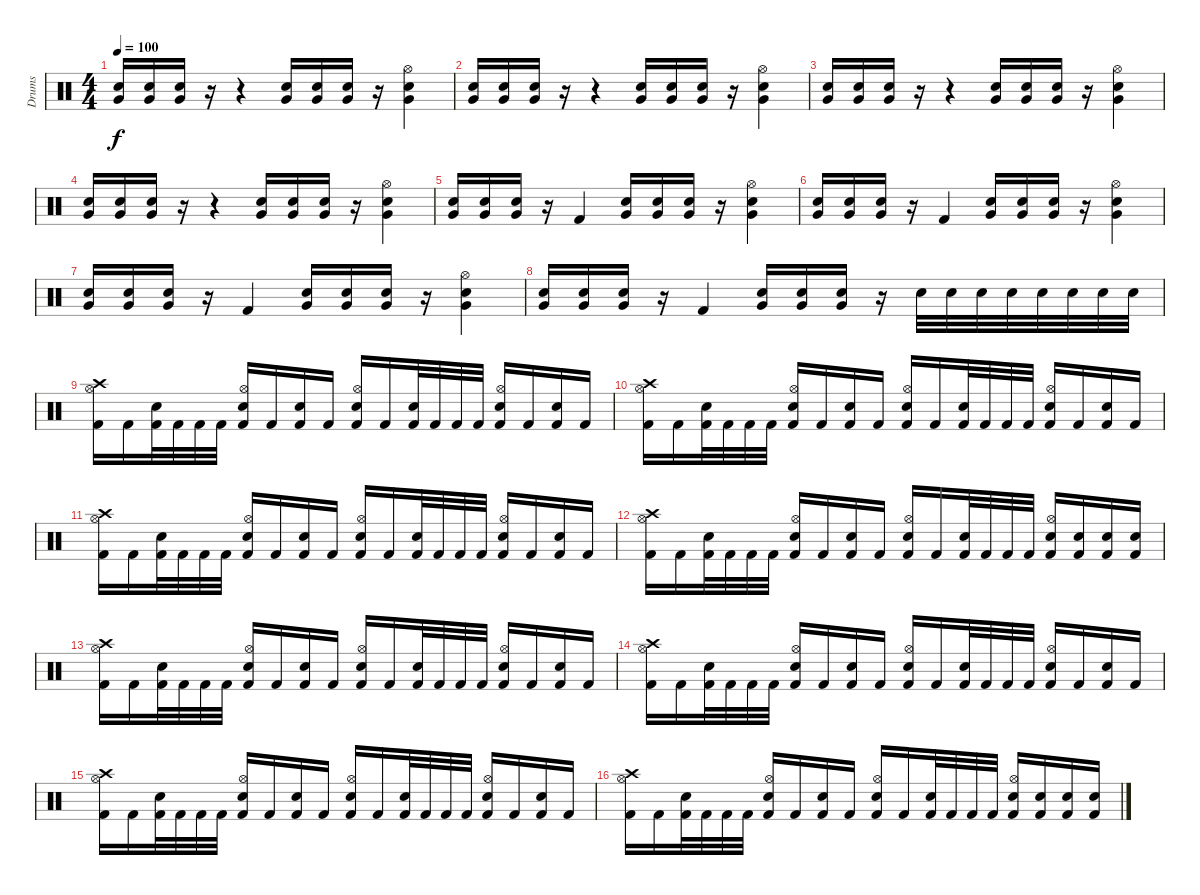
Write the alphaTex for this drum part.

\track ("Drums" "Drums") {instrument percussion}
\staff {score}
\articulation defaults
\ts (4 4)
\tempo 100
\clef neutral
\ks c
("Electric Snare (hit)" "Very Low Tom (hit)").16{dy f} ("Electric Snare (hit)" "Very Low Tom (hit)").16 ("Electric Snare (hit)" "Very Low Tom (hit)").16 r.16 r.4 ("Electric Snare (hit)" "Very Low Tom (hit)").16 ("Electric Snare (hit)" "Very Low Tom (hit)").16 ("Electric Snare (hit)" "Very Low Tom (hit)").16 r.16 ("Hi-Hat (open)" "Electric Snare (hit)" "Very Low Tom (hit)").4 |
("Electric Snare (hit)" "Very Low Tom (hit)").16 ("Electric Snare (hit)" "Very Low Tom (hit)").16 ("Electric Snare (hit)" "Very Low Tom (hit)").16 r.16 r.4 ("Electric Snare (hit)" "Very Low Tom (hit)").16 ("Electric Snare (hit)" "Very Low Tom (hit)").16 ("Electric Snare (hit)" "Very Low Tom (hit)").16 r.16 ("Hi-Hat (open)" "Electric Snare (hit)" "Very Low Tom (hit)").4 |
("Electric Snare (hit)" "Very Low Tom (hit)").16 ("Electric Snare (hit)" "Very Low Tom (hit)").16 ("Electric Snare (hit)" "Very Low Tom (hit)").16 r.16 r.4 ("Electric Snare (hit)" "Very Low Tom (hit)").16 ("Electric Snare (hit)" "Very Low Tom (hit)").16 ("Electric Snare (hit)" "Very Low Tom (hit)").16 r.16 ("Hi-Hat (open)" "Electric Snare (hit)" "Very Low Tom (hit)").4 |
("Electric Snare (hit)" "Very Low Tom (hit)").16 ("Electric Snare (hit)" "Very Low Tom (hit)").16 ("Electric Snare (hit)" "Very Low Tom (hit)").16 r.16 r.4 ("Electric Snare (hit)" "Very Low Tom (hit)").16 ("Electric Snare (hit)" "Very Low Tom (hit)").16 ("Electric Snare (hit)" "Very Low Tom (hit)").16 r.16 ("Hi-Hat (open)" "Electric Snare (hit)" "Very Low Tom (hit)").4 |
("Electric Snare (hit)" "Very Low Tom (hit)").16 ("Electric Snare (hit)" "Very Low Tom (hit)").16 ("Electric Snare (hit)" "Very Low Tom (hit)").16 r.16 "Kick (hit) 2".4 ("Electric Snare (hit)" "Very Low Tom (hit)").16 ("Electric Snare (hit)" "Very Low Tom (hit)").16 ("Electric Snare (hit)" "Very Low Tom (hit)").16 r.16 ("Hi-Hat (open)" "Electric Snare (hit)" "Very Low Tom (hit)").4 |
("Electric Snare (hit)" "Very Low Tom (hit)").16 ("Electric Snare (hit)" "Very Low Tom (hit)").16 ("Electric Snare (hit)" "Very Low Tom (hit)").16 r.16 "Kick (hit) 2".4 ("Electric Snare (hit)" "Very Low Tom (hit)").16 ("Electric Snare (hit)" "Very Low Tom (hit)").16 ("Electric Snare (hit)" "Very Low Tom (hit)").16 r.16 ("Hi-Hat (open)" "Electric Snare (hit)" "Very Low Tom (hit)").4 |
("Electric Snare (hit)" "Very Low Tom (hit)").16 ("Electric Snare (hit)" "Very Low Tom (hit)").16 ("Electric Snare (hit)" "Very Low Tom (hit)").16 r.16 "Kick (hit) 2".4 ("Electric Snare (hit)" "Very Low Tom (hit)").16 ("Electric Snare (hit)" "Very Low Tom (hit)").16 ("Electric Snare (hit)" "Very Low Tom (hit)").16 r.16 ("Hi-Hat (open)" "Electric Snare (hit)" "Very Low Tom (hit)").4 |
("Electric Snare (hit)" "Very Low Tom (hit)").16 ("Electric Snare (hit)" "Very Low Tom (hit)").16 ("Electric Snare (hit)" "Very Low Tom (hit)").16 r.16 "Kick (hit) 2".4 ("Electric Snare (hit)" "Very Low Tom (hit)").16 ("Electric Snare (hit)" "Very Low Tom (hit)").16 ("Electric Snare (hit)" "Very Low Tom (hit)").16 r.16 "Electric Snare (hit)".32 "Electric Snare (hit)".32 "Electric Snare (hit)".32 "Electric Snare (hit)".32 "Electric Snare (hit)".32 "Electric Snare (hit)".32 "Electric Snare (hit)".32 "Electric Snare (hit)".32 |
("Crash high (hit)" "Hi-Hat (open)" "Kick (hit) 2").16 "Kick (hit) 2".16 ("Electric Snare (hit)" "Kick (hit) 2").32 "Kick (hit) 2".32 "Kick (hit) 2".32 "Kick (hit) 2".32 ("Hi-Hat (open)" "Electric Snare (hit)" "Kick (hit) 2").16 "Kick (hit) 2".16 ("Electric Snare (hit)" "Kick (hit) 2").16 "Kick (hit) 2".16 ("Hi-Hat (open)" "Electric Snare (hit)" "Kick (hit) 2").16 "Kick (hit) 2".16 ("Electric Snare (hit)" "Kick (hit) 2").32 "Kick (hit) 2".32 "Kick (hit) 2".32 "Kick (hit) 2".32 ("Hi-Hat (open)" "Electric Snare (hit)" "Kick (hit) 2").16 "Kick (hit) 2".16 ("Electric Snare (hit)" "Kick (hit) 2").16 "Kick (hit) 2".16 |
("Crash high (hit)" "Hi-Hat (open)" "Kick (hit) 2").16 "Kick (hit) 2".16 ("Electric Snare (hit)" "Kick (hit) 2").32 "Kick (hit) 2".32 "Kick (hit) 2".32 "Kick (hit) 2".32 ("Hi-Hat (open)" "Electric Snare (hit)" "Kick (hit) 2").16 "Kick (hit) 2".16 ("Electric Snare (hit)" "Kick (hit) 2").16 "Kick (hit) 2".16 ("Hi-Hat (open)" "Electric Snare (hit)" "Kick (hit) 2").16 "Kick (hit) 2".16 ("Electric Snare (hit)" "Kick (hit) 2").32 "Kick (hit) 2".32 "Kick (hit) 2".32 "Kick (hit) 2".32 ("Hi-Hat (open)" "Electric Snare (hit)" "Kick (hit) 2").16 "Kick (hit) 2".16 ("Electric Snare (hit)" "Kick (hit) 2").16 "Kick (hit) 2".16 |
("Crash high (hit)" "Hi-Hat (open)" "Kick (hit) 2").16 "Kick (hit) 2".16 ("Electric Snare (hit)" "Kick (hit) 2").32 "Kick (hit) 2".32 "Kick (hit) 2".32 "Kick (hit) 2".32 ("Hi-Hat (open)" "Electric Snare (hit)" "Kick (hit) 2").16 "Kick (hit) 2".16 ("Electric Snare (hit)" "Kick (hit) 2").16 "Kick (hit) 2".16 ("Hi-Hat (open)" "Electric Snare (hit)" "Kick (hit) 2").16 "Kick (hit) 2".16 ("Electric Snare (hit)" "Kick (hit) 2").32 "Kick (hit) 2".32 "Kick (hit) 2".32 "Kick (hit) 2".32 ("Hi-Hat (open)" "Electric Snare (hit)" "Kick (hit) 2").16 "Kick (hit) 2".16 ("Electric Snare (hit)" "Kick (hit) 2").16 "Kick (hit) 2".16 |
("Crash high (hit)" "Hi-Hat (open)" "Kick (hit) 2").16 "Kick (hit) 2".16 ("Electric Snare (hit)" "Kick (hit) 2").32 "Kick (hit) 2".32 "Kick (hit) 2".32 "Kick (hit) 2".32 ("Hi-Hat (open)" "Electric Snare (hit)" "Kick (hit) 2").16 "Kick (hit) 2".16 ("Electric Snare (hit)" "Kick (hit) 2").16 "Kick (hit) 2".16 ("Hi-Hat (open)" "Electric Snare (hit)" "Kick (hit) 2").16 "Kick (hit) 2".16 ("Electric Snare (hit)" "Kick (hit) 2").32 "Kick (hit) 2".32 "Kick (hit) 2".32 "Kick (hit) 2".32 ("Hi-Hat (open)" "Electric Snare (hit)" "Kick (hit) 2").16 ("Electric Snare (hit)" "Kick (hit) 2").16 ("Electric Snare (hit)" "Kick (hit) 2").16 ("Electric Snare (hit)" "Kick (hit) 2").16 |
("Crash high (hit)" "Hi-Hat (open)" "Kick (hit) 2").16 "Kick (hit) 2".16 ("Electric Snare (hit)" "Kick (hit) 2").32 "Kick (hit) 2".32 "Kick (hit) 2".32 "Kick (hit) 2".32 ("Hi-Hat (open)" "Electric Snare (hit)" "Kick (hit) 2").16 "Kick (hit) 2".16 ("Electric Snare (hit)" "Kick (hit) 2").16 "Kick (hit) 2".16 ("Hi-Hat (open)" "Electric Snare (hit)" "Kick (hit) 2").16 "Kick (hit) 2".16 ("Electric Snare (hit)" "Kick (hit) 2").32 "Kick (hit) 2".32 "Kick (hit) 2".32 "Kick (hit) 2".32 ("Hi-Hat (open)" "Electric Snare (hit)" "Kick (hit) 2").16 "Kick (hit) 2".16 ("Electric Snare (hit)" "Kick (hit) 2").16 "Kick (hit) 2".16 |
("Crash high (hit)" "Hi-Hat (open)" "Kick (hit) 2").16 "Kick (hit) 2".16 ("Electric Snare (hit)" "Kick (hit) 2").32 "Kick (hit) 2".32 "Kick (hit) 2".32 "Kick (hit) 2".32 ("Hi-Hat (open)" "Electric Snare (hit)" "Kick (hit) 2").16 "Kick (hit) 2".16 ("Electric Snare (hit)" "Kick (hit) 2").16 "Kick (hit) 2".16 ("Hi-Hat (open)" "Electric Snare (hit)" "Kick (hit) 2").16 "Kick (hit) 2".16 ("Electric Snare (hit)" "Kick (hit) 2").32 "Kick (hit) 2".32 "Kick (hit) 2".32 "Kick (hit) 2".32 ("Hi-Hat (open)" "Electric Snare (hit)" "Kick (hit) 2").16 "Kick (hit) 2".16 ("Electric Snare (hit)" "Kick (hit) 2").16 "Kick (hit) 2".16 |
("Crash high (hit)" "Hi-Hat (open)" "Kick (hit) 2").16 "Kick (hit) 2".16 ("Electric Snare (hit)" "Kick (hit) 2").32 "Kick (hit) 2".32 "Kick (hit) 2".32 "Kick (hit) 2".32 ("Hi-Hat (open)" "Electric Snare (hit)" "Kick (hit) 2").16 "Kick (hit) 2".16 ("Electric Snare (hit)" "Kick (hit) 2").16 "Kick (hit) 2".16 ("Hi-Hat (open)" "Electric Snare (hit)" "Kick (hit) 2").16 "Kick (hit) 2".16 ("Electric Snare (hit)" "Kick (hit) 2").32 "Kick (hit) 2".32 "Kick (hit) 2".32 "Kick (hit) 2".32 ("Hi-Hat (open)" "Electric Snare (hit)" "Kick (hit) 2").16 "Kick (hit) 2".16 ("Electric Snare (hit)" "Kick (hit) 2").16 "Kick (hit) 2".16 |
("Crash high (hit)" "Hi-Hat (open)" "Kick (hit) 2").16 "Kick (hit) 2".16 ("Electric Snare (hit)" "Kick (hit) 2").32 "Kick (hit) 2".32 "Kick (hit) 2".32 "Kick (hit) 2".32 ("Hi-Hat (open)" "Electric Snare (hit)" "Kick (hit) 2").16 "Kick (hit) 2".16 ("Electric Snare (hit)" "Kick (hit) 2").16 "Kick (hit) 2".16 ("Hi-Hat (open)" "Electric Snare (hit)" "Kick (hit) 2").16 "Kick (hit) 2".16 ("Electric Snare (hit)" "Kick (hit) 2").32 "Kick (hit) 2".32 "Kick (hit) 2".32 "Kick (hit) 2".32 ("Hi-Hat (open)" "Electric Snare (hit)" "Kick (hit) 2").16 ("Electric Snare (hit)" "Kick (hit) 2").16 ("Electric Snare (hit)" "Kick (hit) 2").16 ("Electric Snare (hit)" "Kick (hit) 2").16
